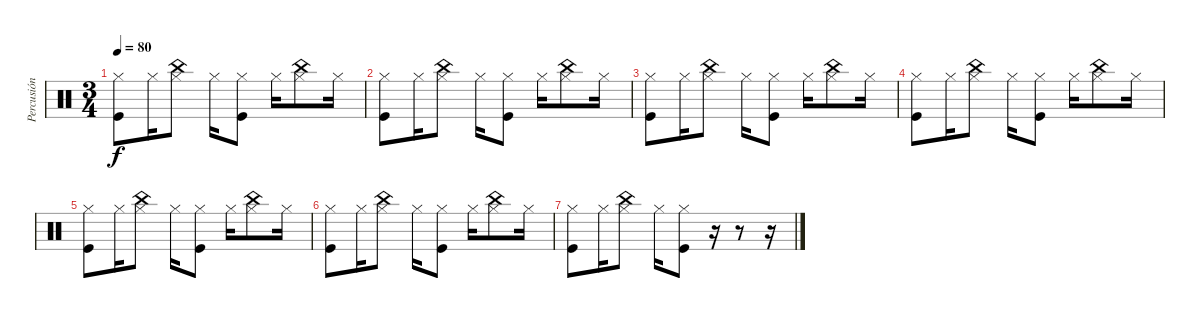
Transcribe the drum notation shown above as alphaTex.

\track ("Percusión" "Percusión") {instrument percussion}
\staff {score}
\articulation defaults
\ts (3 4)
\tempo 80
\clef neutral
\ks c
("Hi-Hat (closed)" "Kick (hit)").8{dy f} "Hi-Hat (closed)".16 ("Hi-Hat (closed)" "China (hit)").8 "Hi-Hat (closed)".16 ("Hi-Hat (closed)" "Kick (hit)").8 "Hi-Hat (closed)".16 ("Hi-Hat (closed)" "China (hit)").8 "Hi-Hat (closed)".16 |
("Hi-Hat (closed)" "Kick (hit)").8 "Hi-Hat (closed)".16 ("Hi-Hat (closed)" "China (hit)").8 "Hi-Hat (closed)".16 ("Hi-Hat (closed)" "Kick (hit)").8 "Hi-Hat (closed)".16 ("Hi-Hat (closed)" "China (hit)").8 "Hi-Hat (closed)".16 |
("Hi-Hat (closed)" "Kick (hit)").8 "Hi-Hat (closed)".16 ("Hi-Hat (closed)" "China (hit)").8 "Hi-Hat (closed)".16 ("Hi-Hat (closed)" "Kick (hit)").8 "Hi-Hat (closed)".16 ("Hi-Hat (closed)" "China (hit)").8 "Hi-Hat (closed)".16 |
("Hi-Hat (closed)" "Kick (hit)").8 "Hi-Hat (closed)".16 ("Hi-Hat (closed)" "China (hit)").8 "Hi-Hat (closed)".16 ("Hi-Hat (closed)" "Kick (hit)").8 "Hi-Hat (closed)".16 ("Hi-Hat (closed)" "China (hit)").8 "Hi-Hat (closed)".16 |
("Hi-Hat (closed)" "Kick (hit)").8 "Hi-Hat (closed)".16 ("Hi-Hat (closed)" "China (hit)").8 "Hi-Hat (closed)".16 ("Hi-Hat (closed)" "Kick (hit)").8 "Hi-Hat (closed)".16 ("Hi-Hat (closed)" "China (hit)").8 "Hi-Hat (closed)".16 |
("Hi-Hat (closed)" "Kick (hit)").8 "Hi-Hat (closed)".16 ("Hi-Hat (closed)" "China (hit)").8 "Hi-Hat (closed)".16 ("Hi-Hat (closed)" "Kick (hit)").8 "Hi-Hat (closed)".16 ("Hi-Hat (closed)" "China (hit)").8 "Hi-Hat (closed)".16 |
("Hi-Hat (closed)" "Kick (hit)").8 "Hi-Hat (closed)".16 ("Hi-Hat (closed)" "China (hit)").8 "Hi-Hat (closed)".16 ("Hi-Hat (closed)" "Kick (hit)").8 r.16 r.8 r.16
